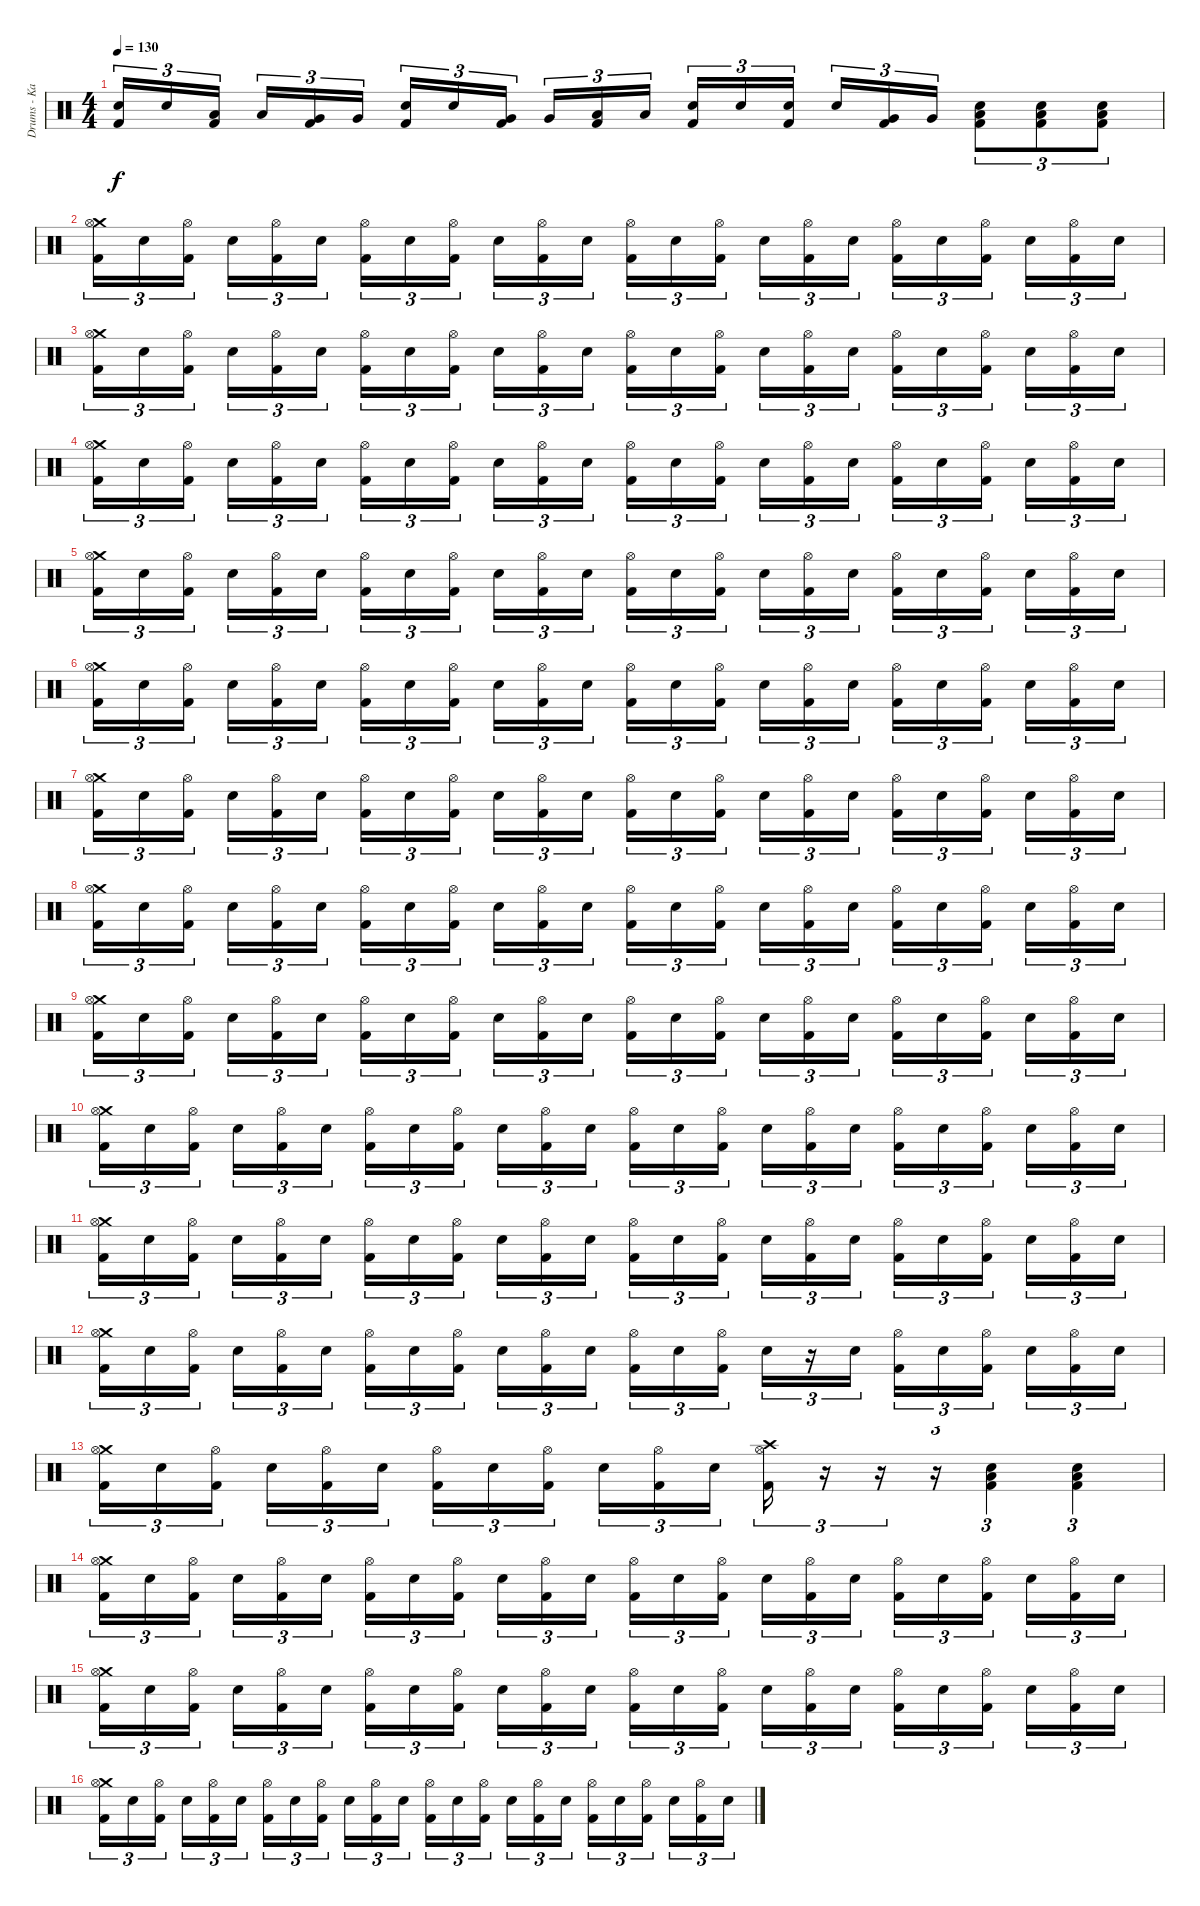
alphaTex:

\track ("Drums - Kai Hahto " "Drums - Ka") {instrument percussion}
\staff {score}
\articulation defaults
\ts (4 4)
\tempo 130
\clef neutral
\ks c
("Snare (hit) 2" "Kick (hit) 2").16{tu (3 2) dy f} "Snare (hit) 2".16{tu (3 2)} ("Low Tom (hit)" "Kick (hit) 2").16{tu (3 2) beam splitsecondary} "Low Tom (hit)".16{tu (3 2)} ("Very Low Tom (hit)" "Kick (hit) 2").16{tu (3 2)} "Very Low Tom (hit)".16{tu (3 2)} ("Snare (hit) 2" "Kick (hit) 2").16{tu (3 2)} "Snare (hit) 2".16{tu (3 2)} ("Very Low Tom (hit)" "Kick (hit) 2").16{tu (3 2) beam splitsecondary} "Very Low Tom (hit)".16{tu (3 2)} ("Low Floor Tom (hit)" "Kick (hit) 2").16{tu (3 2)} "Low Floor Tom (hit)".16{tu (3 2)} ("Snare (hit) 2" "Kick (hit) 2").16{tu (3 2)} "Snare (hit) 2".16{tu (3 2)} ("Snare (hit) 2" "Kick (hit) 2").16{tu (3 2) beam splitsecondary} "Snare (hit) 2".16{tu (3 2)} ("Very Low Tom (hit)" "Kick (hit) 2").16{tu (3 2)} "Very Low Tom (hit)".16{tu (3 2)} ("Snare (hit) 2" "Low Floor Tom (hit)" "Kick (hit) 2").8{tu (3 2)} ("Snare (hit) 2" "Low Floor Tom (hit)" "Kick (hit) 2").8{tu (3 2)} ("Snare (hit) 2" "Low Floor Tom (hit)" "Kick (hit) 2").8{tu (3 2)} |
("Crash medium (hit)" "Hi-Hat (open)" "Kick (hit) 2").16{tu (3 2)} "Snare (hit) 2".16{tu (3 2)} ("Hi-Hat (open)" "Kick (hit) 2").16{tu (3 2) beam splitsecondary} "Snare (hit) 2".16{tu (3 2)} ("Hi-Hat (open)" "Kick (hit) 2").16{tu (3 2)} "Snare (hit) 2".16{tu (3 2)} ("Hi-Hat (open)" "Kick (hit) 2").16{tu (3 2)} "Snare (hit) 2".16{tu (3 2)} ("Hi-Hat (open)" "Kick (hit) 2").16{tu (3 2) beam splitsecondary} "Snare (hit) 2".16{tu (3 2)} ("Hi-Hat (open)" "Kick (hit) 2").16{tu (3 2)} "Snare (hit) 2".16{tu (3 2)} ("Hi-Hat (open)" "Kick (hit) 2").16{tu (3 2)} "Snare (hit) 2".16{tu (3 2)} ("Hi-Hat (open)" "Kick (hit) 2").16{tu (3 2) beam splitsecondary} "Snare (hit) 2".16{tu (3 2)} ("Hi-Hat (open)" "Kick (hit) 2").16{tu (3 2)} "Snare (hit) 2".16{tu (3 2)} ("Hi-Hat (open)" "Kick (hit) 2").16{tu (3 2)} "Snare (hit) 2".16{tu (3 2)} ("Hi-Hat (open)" "Kick (hit) 2").16{tu (3 2) beam splitsecondary} "Snare (hit) 2".16{tu (3 2)} ("Hi-Hat (open)" "Kick (hit) 2").16{tu (3 2)} "Snare (hit) 2".16{tu (3 2)} |
("Crash medium (hit)" "Hi-Hat (open)" "Kick (hit) 2").16{tu (3 2)} "Snare (hit) 2".16{tu (3 2)} ("Hi-Hat (open)" "Kick (hit) 2").16{tu (3 2) beam splitsecondary} "Snare (hit) 2".16{tu (3 2)} ("Hi-Hat (open)" "Kick (hit) 2").16{tu (3 2)} "Snare (hit) 2".16{tu (3 2)} ("Hi-Hat (open)" "Kick (hit) 2").16{tu (3 2)} "Snare (hit) 2".16{tu (3 2)} ("Hi-Hat (open)" "Kick (hit) 2").16{tu (3 2) beam splitsecondary} "Snare (hit) 2".16{tu (3 2)} ("Hi-Hat (open)" "Kick (hit) 2").16{tu (3 2)} "Snare (hit) 2".16{tu (3 2)} ("Hi-Hat (open)" "Kick (hit) 2").16{tu (3 2)} "Snare (hit) 2".16{tu (3 2)} ("Hi-Hat (open)" "Kick (hit) 2").16{tu (3 2) beam splitsecondary} "Snare (hit) 2".16{tu (3 2)} ("Hi-Hat (open)" "Kick (hit) 2").16{tu (3 2)} "Snare (hit) 2".16{tu (3 2)} ("Hi-Hat (open)" "Kick (hit) 2").16{tu (3 2)} "Snare (hit) 2".16{tu (3 2)} ("Hi-Hat (open)" "Kick (hit) 2").16{tu (3 2) beam splitsecondary} "Snare (hit) 2".16{tu (3 2)} ("Hi-Hat (open)" "Kick (hit) 2").16{tu (3 2)} "Snare (hit) 2".16{tu (3 2)} |
("Crash medium (hit)" "Hi-Hat (open)" "Kick (hit) 2").16{tu (3 2)} "Snare (hit) 2".16{tu (3 2)} ("Hi-Hat (open)" "Kick (hit) 2").16{tu (3 2) beam splitsecondary} "Snare (hit) 2".16{tu (3 2)} ("Hi-Hat (open)" "Kick (hit) 2").16{tu (3 2)} "Snare (hit) 2".16{tu (3 2)} ("Hi-Hat (open)" "Kick (hit) 2").16{tu (3 2)} "Snare (hit) 2".16{tu (3 2)} ("Hi-Hat (open)" "Kick (hit) 2").16{tu (3 2) beam splitsecondary} "Snare (hit) 2".16{tu (3 2)} ("Hi-Hat (open)" "Kick (hit) 2").16{tu (3 2)} "Snare (hit) 2".16{tu (3 2)} ("Hi-Hat (open)" "Kick (hit) 2").16{tu (3 2)} "Snare (hit) 2".16{tu (3 2)} ("Hi-Hat (open)" "Kick (hit) 2").16{tu (3 2) beam splitsecondary} "Snare (hit) 2".16{tu (3 2)} ("Hi-Hat (open)" "Kick (hit) 2").16{tu (3 2)} "Snare (hit) 2".16{tu (3 2)} ("Hi-Hat (open)" "Kick (hit) 2").16{tu (3 2)} "Snare (hit) 2".16{tu (3 2)} ("Hi-Hat (open)" "Kick (hit) 2").16{tu (3 2) beam splitsecondary} "Snare (hit) 2".16{tu (3 2)} ("Hi-Hat (open)" "Kick (hit) 2").16{tu (3 2)} "Snare (hit) 2".16{tu (3 2)} |
("Crash medium (hit)" "Hi-Hat (open)" "Kick (hit) 2").16{tu (3 2)} "Snare (hit) 2".16{tu (3 2)} ("Hi-Hat (open)" "Kick (hit) 2").16{tu (3 2) beam splitsecondary} "Snare (hit) 2".16{tu (3 2)} ("Hi-Hat (open)" "Kick (hit) 2").16{tu (3 2)} "Snare (hit) 2".16{tu (3 2)} ("Hi-Hat (open)" "Kick (hit) 2").16{tu (3 2)} "Snare (hit) 2".16{tu (3 2)} ("Hi-Hat (open)" "Kick (hit) 2").16{tu (3 2) beam splitsecondary} "Snare (hit) 2".16{tu (3 2)} ("Hi-Hat (open)" "Kick (hit) 2").16{tu (3 2)} "Snare (hit) 2".16{tu (3 2)} ("Hi-Hat (open)" "Kick (hit) 2").16{tu (3 2)} "Snare (hit) 2".16{tu (3 2)} ("Hi-Hat (open)" "Kick (hit) 2").16{tu (3 2) beam splitsecondary} "Snare (hit) 2".16{tu (3 2)} ("Hi-Hat (open)" "Kick (hit) 2").16{tu (3 2)} "Snare (hit) 2".16{tu (3 2)} ("Hi-Hat (open)" "Kick (hit) 2").16{tu (3 2)} "Snare (hit) 2".16{tu (3 2)} ("Hi-Hat (open)" "Kick (hit) 2").16{tu (3 2) beam splitsecondary} "Snare (hit) 2".16{tu (3 2)} ("Hi-Hat (open)" "Kick (hit) 2").16{tu (3 2)} "Snare (hit) 2".16{tu (3 2)} |
("Crash medium (hit)" "Hi-Hat (open)" "Kick (hit) 2").16{tu (3 2)} "Snare (hit) 2".16{tu (3 2)} ("Hi-Hat (open)" "Kick (hit) 2").16{tu (3 2) beam splitsecondary} "Snare (hit) 2".16{tu (3 2)} ("Hi-Hat (open)" "Kick (hit) 2").16{tu (3 2)} "Snare (hit) 2".16{tu (3 2)} ("Hi-Hat (open)" "Kick (hit) 2").16{tu (3 2)} "Snare (hit) 2".16{tu (3 2)} ("Hi-Hat (open)" "Kick (hit) 2").16{tu (3 2) beam splitsecondary} "Snare (hit) 2".16{tu (3 2)} ("Hi-Hat (open)" "Kick (hit) 2").16{tu (3 2)} "Snare (hit) 2".16{tu (3 2)} ("Hi-Hat (open)" "Kick (hit) 2").16{tu (3 2)} "Snare (hit) 2".16{tu (3 2)} ("Hi-Hat (open)" "Kick (hit) 2").16{tu (3 2) beam splitsecondary} "Snare (hit) 2".16{tu (3 2)} ("Hi-Hat (open)" "Kick (hit) 2").16{tu (3 2)} "Snare (hit) 2".16{tu (3 2)} ("Hi-Hat (open)" "Kick (hit) 2").16{tu (3 2)} "Snare (hit) 2".16{tu (3 2)} ("Hi-Hat (open)" "Kick (hit) 2").16{tu (3 2) beam splitsecondary} "Snare (hit) 2".16{tu (3 2)} ("Hi-Hat (open)" "Kick (hit) 2").16{tu (3 2)} "Snare (hit) 2".16{tu (3 2)} |
("Crash medium (hit)" "Hi-Hat (open)" "Kick (hit) 2").16{tu (3 2)} "Snare (hit) 2".16{tu (3 2)} ("Hi-Hat (open)" "Kick (hit) 2").16{tu (3 2) beam splitsecondary} "Snare (hit) 2".16{tu (3 2)} ("Hi-Hat (open)" "Kick (hit) 2").16{tu (3 2)} "Snare (hit) 2".16{tu (3 2)} ("Hi-Hat (open)" "Kick (hit) 2").16{tu (3 2)} "Snare (hit) 2".16{tu (3 2)} ("Hi-Hat (open)" "Kick (hit) 2").16{tu (3 2) beam splitsecondary} "Snare (hit) 2".16{tu (3 2)} ("Hi-Hat (open)" "Kick (hit) 2").16{tu (3 2)} "Snare (hit) 2".16{tu (3 2)} ("Hi-Hat (open)" "Kick (hit) 2").16{tu (3 2)} "Snare (hit) 2".16{tu (3 2)} ("Hi-Hat (open)" "Kick (hit) 2").16{tu (3 2) beam splitsecondary} "Snare (hit) 2".16{tu (3 2)} ("Hi-Hat (open)" "Kick (hit) 2").16{tu (3 2)} "Snare (hit) 2".16{tu (3 2)} ("Hi-Hat (open)" "Kick (hit) 2").16{tu (3 2)} "Snare (hit) 2".16{tu (3 2)} ("Hi-Hat (open)" "Kick (hit) 2").16{tu (3 2) beam splitsecondary} "Snare (hit) 2".16{tu (3 2)} ("Hi-Hat (open)" "Kick (hit) 2").16{tu (3 2)} "Snare (hit) 2".16{tu (3 2)} |
("Crash medium (hit)" "Hi-Hat (open)" "Kick (hit) 2").16{tu (3 2)} "Snare (hit) 2".16{tu (3 2)} ("Hi-Hat (open)" "Kick (hit) 2").16{tu (3 2) beam splitsecondary} "Snare (hit) 2".16{tu (3 2)} ("Hi-Hat (open)" "Kick (hit) 2").16{tu (3 2)} "Snare (hit) 2".16{tu (3 2)} ("Hi-Hat (open)" "Kick (hit) 2").16{tu (3 2)} "Snare (hit) 2".16{tu (3 2)} ("Hi-Hat (open)" "Kick (hit) 2").16{tu (3 2) beam splitsecondary} "Snare (hit) 2".16{tu (3 2)} ("Hi-Hat (open)" "Kick (hit) 2").16{tu (3 2)} "Snare (hit) 2".16{tu (3 2)} ("Hi-Hat (open)" "Kick (hit) 2").16{tu (3 2)} "Snare (hit) 2".16{tu (3 2)} ("Hi-Hat (open)" "Kick (hit) 2").16{tu (3 2) beam splitsecondary} "Snare (hit) 2".16{tu (3 2)} ("Hi-Hat (open)" "Kick (hit) 2").16{tu (3 2)} "Snare (hit) 2".16{tu (3 2)} ("Hi-Hat (open)" "Kick (hit) 2").16{tu (3 2)} "Snare (hit) 2".16{tu (3 2)} ("Hi-Hat (open)" "Kick (hit) 2").16{tu (3 2) beam splitsecondary} "Snare (hit) 2".16{tu (3 2)} ("Hi-Hat (open)" "Kick (hit) 2").16{tu (3 2)} "Snare (hit) 2".16{tu (3 2)} |
("Crash medium (hit)" "Hi-Hat (open)" "Kick (hit) 2").16{tu (3 2)} "Snare (hit) 2".16{tu (3 2)} ("Hi-Hat (open)" "Kick (hit) 2").16{tu (3 2) beam splitsecondary} "Snare (hit) 2".16{tu (3 2)} ("Hi-Hat (open)" "Kick (hit) 2").16{tu (3 2)} "Snare (hit) 2".16{tu (3 2)} ("Hi-Hat (open)" "Kick (hit) 2").16{tu (3 2)} "Snare (hit) 2".16{tu (3 2)} ("Hi-Hat (open)" "Kick (hit) 2").16{tu (3 2) beam splitsecondary} "Snare (hit) 2".16{tu (3 2)} ("Hi-Hat (open)" "Kick (hit) 2").16{tu (3 2)} "Snare (hit) 2".16{tu (3 2)} ("Hi-Hat (open)" "Kick (hit) 2").16{tu (3 2)} "Snare (hit) 2".16{tu (3 2)} ("Hi-Hat (open)" "Kick (hit) 2").16{tu (3 2) beam splitsecondary} "Snare (hit) 2".16{tu (3 2)} ("Hi-Hat (open)" "Kick (hit) 2").16{tu (3 2)} "Snare (hit) 2".16{tu (3 2)} ("Hi-Hat (open)" "Kick (hit) 2").16{tu (3 2)} "Snare (hit) 2".16{tu (3 2)} ("Hi-Hat (open)" "Kick (hit) 2").16{tu (3 2) beam splitsecondary} "Snare (hit) 2".16{tu (3 2)} ("Hi-Hat (open)" "Kick (hit) 2").16{tu (3 2)} "Snare (hit) 2".16{tu (3 2)} |
("Crash medium (hit)" "Hi-Hat (open)" "Kick (hit) 2").16{tu (3 2)} "Snare (hit) 2".16{tu (3 2)} ("Hi-Hat (open)" "Kick (hit) 2").16{tu (3 2) beam splitsecondary} "Snare (hit) 2".16{tu (3 2)} ("Hi-Hat (open)" "Kick (hit) 2").16{tu (3 2)} "Snare (hit) 2".16{tu (3 2)} ("Hi-Hat (open)" "Kick (hit) 2").16{tu (3 2)} "Snare (hit) 2".16{tu (3 2)} ("Hi-Hat (open)" "Kick (hit) 2").16{tu (3 2) beam splitsecondary} "Snare (hit) 2".16{tu (3 2)} ("Hi-Hat (open)" "Kick (hit) 2").16{tu (3 2)} "Snare (hit) 2".16{tu (3 2)} ("Hi-Hat (open)" "Kick (hit) 2").16{tu (3 2)} "Snare (hit) 2".16{tu (3 2)} ("Hi-Hat (open)" "Kick (hit) 2").16{tu (3 2) beam splitsecondary} "Snare (hit) 2".16{tu (3 2)} ("Hi-Hat (open)" "Kick (hit) 2").16{tu (3 2)} "Snare (hit) 2".16{tu (3 2)} ("Hi-Hat (open)" "Kick (hit) 2").16{tu (3 2)} "Snare (hit) 2".16{tu (3 2)} ("Hi-Hat (open)" "Kick (hit) 2").16{tu (3 2) beam splitsecondary} "Snare (hit) 2".16{tu (3 2)} ("Hi-Hat (open)" "Kick (hit) 2").16{tu (3 2)} "Snare (hit) 2".16{tu (3 2)} |
("Crash medium (hit)" "Hi-Hat (open)" "Kick (hit) 2").16{tu (3 2)} "Snare (hit) 2".16{tu (3 2)} ("Hi-Hat (open)" "Kick (hit) 2").16{tu (3 2) beam splitsecondary} "Snare (hit) 2".16{tu (3 2)} ("Hi-Hat (open)" "Kick (hit) 2").16{tu (3 2)} "Snare (hit) 2".16{tu (3 2)} ("Hi-Hat (open)" "Kick (hit) 2").16{tu (3 2)} "Snare (hit) 2".16{tu (3 2)} ("Hi-Hat (open)" "Kick (hit) 2").16{tu (3 2) beam splitsecondary} "Snare (hit) 2".16{tu (3 2)} ("Hi-Hat (open)" "Kick (hit) 2").16{tu (3 2)} "Snare (hit) 2".16{tu (3 2)} ("Hi-Hat (open)" "Kick (hit) 2").16{tu (3 2)} "Snare (hit) 2".16{tu (3 2)} ("Hi-Hat (open)" "Kick (hit) 2").16{tu (3 2) beam splitsecondary} "Snare (hit) 2".16{tu (3 2)} ("Hi-Hat (open)" "Kick (hit) 2").16{tu (3 2)} "Snare (hit) 2".16{tu (3 2)} ("Hi-Hat (open)" "Kick (hit) 2").16{tu (3 2)} "Snare (hit) 2".16{tu (3 2)} ("Hi-Hat (open)" "Kick (hit) 2").16{tu (3 2) beam splitsecondary} "Snare (hit) 2".16{tu (3 2)} ("Hi-Hat (open)" "Kick (hit) 2").16{tu (3 2)} "Snare (hit) 2".16{tu (3 2)} |
("Crash medium (hit)" "Hi-Hat (open)" "Kick (hit) 2").16{tu (3 2)} "Snare (hit) 2".16{tu (3 2)} ("Hi-Hat (open)" "Kick (hit) 2").16{tu (3 2) beam splitsecondary} "Snare (hit) 2".16{tu (3 2)} ("Hi-Hat (open)" "Kick (hit) 2").16{tu (3 2)} "Snare (hit) 2".16{tu (3 2)} ("Hi-Hat (open)" "Kick (hit) 2").16{tu (3 2)} "Snare (hit) 2".16{tu (3 2)} ("Hi-Hat (open)" "Kick (hit) 2").16{tu (3 2) beam splitsecondary} "Snare (hit) 2".16{tu (3 2)} ("Hi-Hat (open)" "Kick (hit) 2").16{tu (3 2)} "Snare (hit) 2".16{tu (3 2)} ("Hi-Hat (open)" "Kick (hit) 2").16{tu (3 2)} "Snare (hit) 2".16{tu (3 2)} ("Hi-Hat (open)" "Kick (hit) 2").16{tu (3 2) beam splitsecondary} "Snare (hit) 2".16{tu (3 2)} r.16{tu (3 2)} "Snare (hit) 2".16{tu (3 2)} ("Hi-Hat (open)" "Kick (hit) 2").16{tu (3 2)} "Snare (hit) 2".16{tu (3 2)} ("Hi-Hat (open)" "Kick (hit) 2").16{tu (3 2) beam splitsecondary} "Snare (hit) 2".16{tu (3 2)} ("Hi-Hat (open)" "Kick (hit) 2").16{tu (3 2)} "Snare (hit) 2".16{tu (3 2)} |
("Crash medium (hit)" "Hi-Hat (open)" "Kick (hit) 2").16{tu (3 2)} "Snare (hit) 2".16{tu (3 2)} ("Hi-Hat (open)" "Kick (hit) 2").16{tu (3 2) beam splitsecondary} "Snare (hit) 2".16{tu (3 2)} ("Hi-Hat (open)" "Kick (hit) 2").16{tu (3 2)} "Snare (hit) 2".16{tu (3 2)} ("Hi-Hat (open)" "Kick (hit) 2").16{tu (3 2)} "Snare (hit) 2".16{tu (3 2)} ("Hi-Hat (open)" "Kick (hit) 2").16{tu (3 2) beam splitsecondary} "Snare (hit) 2".16{tu (3 2)} ("Hi-Hat (open)" "Kick (hit) 2").16{tu (3 2)} "Snare (hit) 2".16{tu (3 2)} ("Crash high (hit)" "Hi-Hat (open)" "Kick (hit) 2").16{tu (3 2)} r.16{tu (3 2)} r.16{tu (3 2)} r.16{tu (3 2)} ("Snare (hit) 2" "Low Floor Tom (hit)" "Kick (hit) 2").4{tu (3 2)} ("Snare (hit) 2" "Low Floor Tom (hit)" "Kick (hit) 2").4{tu (3 2)} |
("Crash medium (hit)" "Hi-Hat (open)" "Kick (hit) 2").16{tu (3 2)} "Snare (hit) 2".16{tu (3 2)} ("Hi-Hat (open)" "Kick (hit) 2").16{tu (3 2) beam splitsecondary} "Snare (hit) 2".16{tu (3 2)} ("Hi-Hat (open)" "Kick (hit) 2").16{tu (3 2)} "Snare (hit) 2".16{tu (3 2)} ("Hi-Hat (open)" "Kick (hit) 2").16{tu (3 2)} "Snare (hit) 2".16{tu (3 2)} ("Hi-Hat (open)" "Kick (hit) 2").16{tu (3 2) beam splitsecondary} "Snare (hit) 2".16{tu (3 2)} ("Hi-Hat (open)" "Kick (hit) 2").16{tu (3 2)} "Snare (hit) 2".16{tu (3 2)} ("Hi-Hat (open)" "Kick (hit) 2").16{tu (3 2)} "Snare (hit) 2".16{tu (3 2)} ("Hi-Hat (open)" "Kick (hit) 2").16{tu (3 2) beam splitsecondary} "Snare (hit) 2".16{tu (3 2)} ("Hi-Hat (open)" "Kick (hit) 2").16{tu (3 2)} "Snare (hit) 2".16{tu (3 2)} ("Hi-Hat (open)" "Kick (hit) 2").16{tu (3 2)} "Snare (hit) 2".16{tu (3 2)} ("Hi-Hat (open)" "Kick (hit) 2").16{tu (3 2) beam splitsecondary} "Snare (hit) 2".16{tu (3 2)} ("Hi-Hat (open)" "Kick (hit) 2").16{tu (3 2)} "Snare (hit) 2".16{tu (3 2)} |
("Crash medium (hit)" "Hi-Hat (open)" "Kick (hit) 2").16{tu (3 2)} "Snare (hit) 2".16{tu (3 2)} ("Hi-Hat (open)" "Kick (hit) 2").16{tu (3 2) beam splitsecondary} "Snare (hit) 2".16{tu (3 2)} ("Hi-Hat (open)" "Kick (hit) 2").16{tu (3 2)} "Snare (hit) 2".16{tu (3 2)} ("Hi-Hat (open)" "Kick (hit) 2").16{tu (3 2)} "Snare (hit) 2".16{tu (3 2)} ("Hi-Hat (open)" "Kick (hit) 2").16{tu (3 2) beam splitsecondary} "Snare (hit) 2".16{tu (3 2)} ("Hi-Hat (open)" "Kick (hit) 2").16{tu (3 2)} "Snare (hit) 2".16{tu (3 2)} ("Hi-Hat (open)" "Kick (hit) 2").16{tu (3 2)} "Snare (hit) 2".16{tu (3 2)} ("Hi-Hat (open)" "Kick (hit) 2").16{tu (3 2) beam splitsecondary} "Snare (hit) 2".16{tu (3 2)} ("Hi-Hat (open)" "Kick (hit) 2").16{tu (3 2)} "Snare (hit) 2".16{tu (3 2)} ("Hi-Hat (open)" "Kick (hit) 2").16{tu (3 2)} "Snare (hit) 2".16{tu (3 2)} ("Hi-Hat (open)" "Kick (hit) 2").16{tu (3 2) beam splitsecondary} "Snare (hit) 2".16{tu (3 2)} ("Hi-Hat (open)" "Kick (hit) 2").16{tu (3 2)} "Snare (hit) 2".16{tu (3 2)} |
("Crash medium (hit)" "Hi-Hat (open)" "Kick (hit) 2").16{tu (3 2)} "Snare (hit) 2".16{tu (3 2)} ("Hi-Hat (open)" "Kick (hit) 2").16{tu (3 2) beam splitsecondary} "Snare (hit) 2".16{tu (3 2)} ("Hi-Hat (open)" "Kick (hit) 2").16{tu (3 2)} "Snare (hit) 2".16{tu (3 2)} ("Hi-Hat (open)" "Kick (hit) 2").16{tu (3 2)} "Snare (hit) 2".16{tu (3 2)} ("Hi-Hat (open)" "Kick (hit) 2").16{tu (3 2) beam splitsecondary} "Snare (hit) 2".16{tu (3 2)} ("Hi-Hat (open)" "Kick (hit) 2").16{tu (3 2)} "Snare (hit) 2".16{tu (3 2)} ("Hi-Hat (open)" "Kick (hit) 2").16{tu (3 2)} "Snare (hit) 2".16{tu (3 2)} ("Hi-Hat (open)" "Kick (hit) 2").16{tu (3 2) beam splitsecondary} "Snare (hit) 2".16{tu (3 2)} ("Hi-Hat (open)" "Kick (hit) 2").16{tu (3 2)} "Snare (hit) 2".16{tu (3 2)} ("Hi-Hat (open)" "Kick (hit) 2").16{tu (3 2)} "Snare (hit) 2".16{tu (3 2)} ("Hi-Hat (open)" "Kick (hit) 2").16{tu (3 2) beam splitsecondary} "Snare (hit) 2".16{tu (3 2)} ("Hi-Hat (open)" "Kick (hit) 2").16{tu (3 2)} "Snare (hit) 2".16{tu (3 2)}
